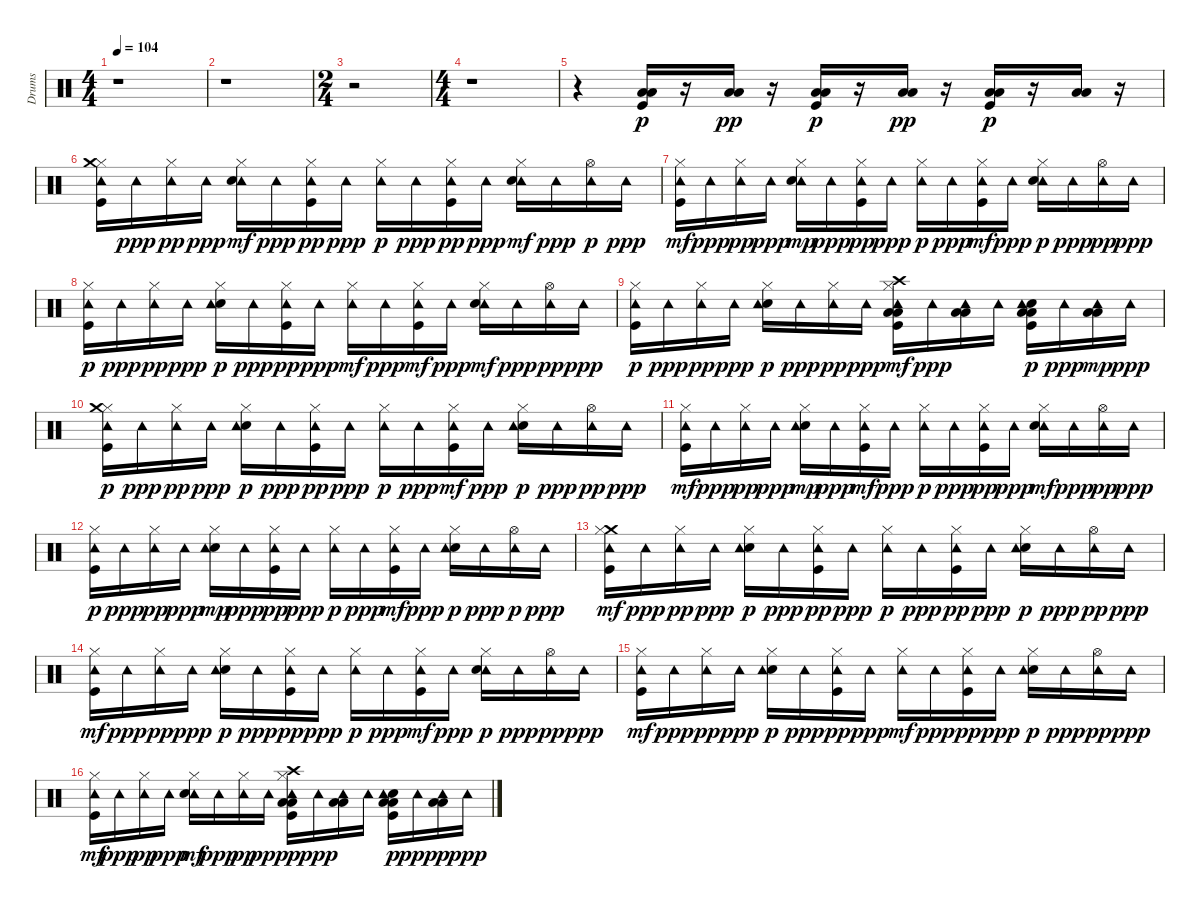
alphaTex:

\track ("Drums" "Drums") {instrument percussion}
\staff {score}
\articulation defaults
\ts (4 4)
\tempo 104
\clef neutral
\ks c
r.1{dy mf} |
r.1 |
\ts (2 4)
r.2 |
\ts (4 4)
r.1 |
r.4 ("Low Floor Tom (hit)" "Kick (hit)" "Low Tom (hit)").16{dy p} r.16 ("Low Floor Tom (hit)" "Low Tom (hit)").16{dy pp} r.16 ("Low Floor Tom (hit)" "Kick (hit)" "Low Tom (hit)").16{dy p} r.16 ("Low Tom (hit)" "Low Floor Tom (hit)").16{dy pp} r.16 ("Kick (hit)" "Low Floor Tom (hit)" "Low Tom (hit)").16{dy p} r.16 ("Low Tom (hit)" "Low Floor Tom (hit)").16 r.16 |
("Kick (hit)" "Hi-Hat (closed)" "Crash medium (hit)" "Tambourine (hit)").16 "Tambourine (hit)".16{dy ppp} ("Hi-Hat (closed)" "Tambourine (hit)").16{dy pp} "Tambourine (hit)".16{dy ppp} ("Tambourine (hit)" "Hi-Hat (closed)" "Electric Snare (hit)").16{dy mf} "Tambourine (hit)".16{dy ppp} ("Kick (hit)" "Hi-Hat (closed)" "Tambourine (hit)").16{dy pp} "Tambourine (hit)".16{dy ppp} ("Hi-Hat (closed)" "Tambourine (hit)").16{dy p} "Tambourine (hit)".16{dy ppp} ("Kick (hit)" "Hi-Hat (closed)" "Tambourine (hit)").16{dy pp} "Tambourine (hit)".16{dy ppp} ("Hi-Hat (closed)" "Tambourine (hit)" "Electric Snare (hit)").16{dy mf} "Tambourine (hit)".16{dy ppp} ("Tambourine (hit)" "Hi-Hat (open)").16{dy p} "Tambourine (hit)".16{dy ppp} |
("Tambourine (hit)" "Hi-Hat (closed)" "Kick (hit)").16{dy mf} "Tambourine (hit)".16{dy ppp} ("Hi-Hat (closed)" "Tambourine (hit)").16{dy pp} "Tambourine (hit)".16{dy ppp} ("Tambourine (hit)" "Electric Snare (hit)" "Hi-Hat (closed)").16{dy mp} "Tambourine (hit)".16{dy ppp} ("Hi-Hat (closed)" "Kick (hit)" "Tambourine (hit)").16{dy pp} "Tambourine (hit)".16{dy ppp} ("Hi-Hat (closed)" "Tambourine (hit)").16{dy p} "Tambourine (hit)".16{dy ppp} ("Tambourine (hit)" "Hi-Hat (closed)" "Kick (hit)").16{dy mf} "Tambourine (hit)".16{dy ppp} ("Tambourine (hit)" "Electric Snare (hit)" "Hi-Hat (closed)").16{dy p} "Tambourine (hit)".16{dy ppp} ("Hi-Hat (open)" "Tambourine (hit)").16{dy pp} "Tambourine (hit)".16{dy ppp} |
("Hi-Hat (closed)" "Kick (hit)" "Tambourine (hit)").16{dy p} "Tambourine (hit)".16{dy ppp} ("Hi-Hat (closed)" "Tambourine (hit)").16{dy pp} "Tambourine (hit)".16{dy ppp} ("Electric Snare (hit)" "Hi-Hat (closed)" "Tambourine (hit)").16{dy p} "Tambourine (hit)".16{dy ppp} ("Kick (hit)" "Hi-Hat (closed)" "Tambourine (hit)").16{dy pp} "Tambourine (hit)".16{dy ppp} ("Tambourine (hit)" "Hi-Hat (closed)").16{dy mf} "Tambourine (hit)".16{dy ppp} ("Tambourine (hit)" "Hi-Hat (closed)" "Kick (hit)").16{dy mf} "Tambourine (hit)".16{dy ppp} ("Hi-Hat (closed)" "Tambourine (hit)" "Electric Snare (hit)").16{dy mf} "Tambourine (hit)".16{dy ppp} ("Hi-Hat (open)" "Tambourine (hit)").16{dy pp} "Tambourine (hit)".16{dy ppp} |
("Kick (hit)" "Hi-Hat (closed)" "Tambourine (hit)").16{dy p} "Tambourine (hit)".16{dy ppp} ("Hi-Hat (closed)" "Tambourine (hit)").16{dy pp} "Tambourine (hit)".16{dy ppp} ("Electric Snare (hit)" "Hi-Hat (closed)" "Tambourine (hit)").16{dy p} "Tambourine (hit)".16{dy ppp} ("Hi-Hat (closed)" "Tambourine (hit)").16{dy pp} "Tambourine (hit)".16{dy ppp} ("Tambourine (hit)" "Crash high (hit)" "Low Tom (hit)" "Kick (hit)" "Hi-Hat (closed)" "Low Floor Tom (hit)").16{dy mf} "Tambourine (hit)".16{dy ppp} ("Tambourine (hit)" "Low Tom (hit)" "Low Floor Tom (hit)").16 "Tambourine (hit)".16 ("Kick (hit)" "Low Tom (hit)" "Low Floor Tom (hit)" "Electric Snare (hit)" "Tambourine (hit)").16{dy p} "Tambourine (hit)".16{dy ppp} ("Low Tom (hit)" "Tambourine (hit)" "Low Floor Tom (hit)").16{dy mp} "Tambourine (hit)".16{dy ppp} |
("Kick (hit)" "Hi-Hat (closed)" "Crash medium (hit)" "Tambourine (hit)").16{dy p} "Tambourine (hit)".16{dy ppp} ("Tambourine (hit)" "Hi-Hat (closed)").16{dy pp} "Tambourine (hit)".16{dy ppp} ("Hi-Hat (closed)" "Electric Snare (hit)" "Tambourine (hit)").16{dy p} "Tambourine (hit)".16{dy ppp} ("Tambourine (hit)" "Kick (hit)" "Hi-Hat (closed)").16{dy pp} "Tambourine (hit)".16{dy ppp} ("Hi-Hat (closed)" "Tambourine (hit)").16{dy p} "Tambourine (hit)".16{dy ppp} ("Tambourine (hit)" "Hi-Hat (closed)" "Kick (hit)").16{dy mf} "Tambourine (hit)".16{dy ppp} ("Hi-Hat (closed)" "Electric Snare (hit)" "Tambourine (hit)").16{dy p} "Tambourine (hit)".16{dy ppp} ("Hi-Hat (open)" "Tambourine (hit)").16{dy pp} "Tambourine (hit)".16{dy ppp} |
("Hi-Hat (closed)" "Tambourine (hit)" "Kick (hit)").16{dy mf} "Tambourine (hit)".16{dy ppp} ("Tambourine (hit)" "Hi-Hat (closed)").16{dy pp} "Tambourine (hit)".16{dy ppp} ("Electric Snare (hit)" "Tambourine (hit)" "Hi-Hat (closed)").16{dy mp} "Tambourine (hit)".16{dy ppp} ("Hi-Hat (closed)" "Tambourine (hit)" "Kick (hit)").16{dy mf} "Tambourine (hit)".16{dy ppp} ("Hi-Hat (closed)" "Tambourine (hit)").16{dy p} "Tambourine (hit)".16{dy ppp} ("Tambourine (hit)" "Kick (hit)" "Hi-Hat (closed)").16{dy pp} "Tambourine (hit)".16{dy ppp} ("Hi-Hat (closed)" "Tambourine (hit)" "Electric Snare (hit)").16{dy mf} "Tambourine (hit)".16{dy ppp} ("Hi-Hat (open)" "Tambourine (hit)").16{dy pp} "Tambourine (hit)".16{dy ppp} |
("Hi-Hat (closed)" "Kick (hit)" "Tambourine (hit)").16{dy p} "Tambourine (hit)".16{dy ppp} ("Hi-Hat (closed)" "Tambourine (hit)").16{dy pp} "Tambourine (hit)".16{dy ppp} ("Electric Snare (hit)" "Tambourine (hit)" "Hi-Hat (closed)").16{dy mp} "Tambourine (hit)".16{dy ppp} ("Kick (hit)" "Hi-Hat (closed)" "Tambourine (hit)").16{dy pp} "Tambourine (hit)".16{dy ppp} ("Hi-Hat (closed)" "Tambourine (hit)").16{dy p} "Tambourine (hit)".16{dy ppp} ("Tambourine (hit)" "Hi-Hat (closed)" "Kick (hit)").16{dy mf} "Tambourine (hit)".16{dy ppp} ("Hi-Hat (closed)" "Electric Snare (hit)" "Tambourine (hit)").16{dy p} "Tambourine (hit)".16{dy ppp} ("Tambourine (hit)" "Hi-Hat (open)").16{dy p} "Tambourine (hit)".16{dy ppp} |
("Crash medium (hit)" "Kick (hit)" "Tambourine (hit)" "Hi-Hat (closed)").16{dy mf} "Tambourine (hit)".16{dy ppp} ("Hi-Hat (closed)" "Tambourine (hit)").16{dy pp} "Tambourine (hit)".16{dy ppp} ("Electric Snare (hit)" "Hi-Hat (closed)" "Tambourine (hit)").16{dy p} "Tambourine (hit)".16{dy ppp} ("Tambourine (hit)" "Kick (hit)" "Hi-Hat (closed)").16{dy pp} "Tambourine (hit)".16{dy ppp} ("Hi-Hat (closed)" "Tambourine (hit)").16{dy p} "Tambourine (hit)".16{dy ppp} ("Kick (hit)" "Hi-Hat (closed)" "Tambourine (hit)").16{dy pp} "Tambourine (hit)".16{dy ppp} ("Electric Snare (hit)" "Hi-Hat (closed)" "Tambourine (hit)").16{dy p} "Tambourine (hit)".16{dy ppp} ("Hi-Hat (open)" "Tambourine (hit)").16{dy pp} "Tambourine (hit)".16{dy ppp} |
("Kick (hit)" "Tambourine (hit)" "Hi-Hat (closed)").16{dy mf} "Tambourine (hit)".16{dy ppp} ("Tambourine (hit)" "Hi-Hat (closed)").16{dy pp} "Tambourine (hit)".16{dy ppp} ("Electric Snare (hit)" "Hi-Hat (closed)" "Tambourine (hit)").16{dy p} "Tambourine (hit)".16{dy ppp} ("Hi-Hat (closed)" "Kick (hit)" "Tambourine (hit)").16{dy pp} "Tambourine (hit)".16{dy ppp} ("Hi-Hat (closed)" "Tambourine (hit)").16{dy p} "Tambourine (hit)".16{dy ppp} ("Hi-Hat (closed)" "Tambourine (hit)" "Kick (hit)").16{dy mf} "Tambourine (hit)".16{dy ppp} ("Tambourine (hit)" "Electric Snare (hit)" "Hi-Hat (closed)").16{dy p} "Tambourine (hit)".16{dy ppp} ("Hi-Hat (open)" "Tambourine (hit)").16{dy pp} "Tambourine (hit)".16{dy ppp} |
("Hi-Hat (closed)" "Tambourine (hit)" "Kick (hit)").16{dy mf} "Tambourine (hit)".16{dy ppp} ("Tambourine (hit)" "Hi-Hat (closed)").16{dy pp} "Tambourine (hit)".16{dy ppp} ("Electric Snare (hit)" "Hi-Hat (closed)" "Tambourine (hit)").16{dy p} "Tambourine (hit)".16{dy ppp} ("Kick (hit)" "Hi-Hat (closed)" "Tambourine (hit)").16{dy pp} "Tambourine (hit)".16{dy ppp} ("Tambourine (hit)" "Hi-Hat (closed)").16{dy mf} "Tambourine (hit)".16{dy ppp} ("Kick (hit)" "Hi-Hat (closed)" "Tambourine (hit)").16{dy pp} "Tambourine (hit)".16{dy ppp} ("Hi-Hat (closed)" "Electric Snare (hit)" "Tambourine (hit)").16{dy p} "Tambourine (hit)".16{dy ppp} ("Hi-Hat (open)" "Tambourine (hit)").16{dy pp} "Tambourine (hit)".16{dy ppp} |
("Tambourine (hit)" "Hi-Hat (closed)" "Kick (hit)").16{dy mf} "Tambourine (hit)".16{dy ppp} ("Hi-Hat (closed)" "Tambourine (hit)").16{dy pp} "Tambourine (hit)".16{dy ppp} ("Tambourine (hit)" "Hi-Hat (closed)" "Electric Snare (hit)").16{dy mf} "Tambourine (hit)".16{dy ppp} ("Hi-Hat (closed)" "Tambourine (hit)").16{dy pp} "Tambourine (hit)".16{dy ppp} ("Hi-Hat (closed)" "Low Floor Tom (hit)" "Low Tom (hit)" "Kick (hit)" "Crash high (hit)" "Tambourine (hit)").16{dy p} "Tambourine (hit)".16{dy ppp} ("Tambourine (hit)" "Low Tom (hit)" "Low Floor Tom (hit)").16 "Tambourine (hit)".16 ("Electric Snare (hit)" "Tambourine (hit)" "Low Tom (hit)" "Kick (hit)" "Low Floor Tom (hit)").16{dy p} "Tambourine (hit)".16{dy ppp} ("Low Floor Tom (hit)" "Tambourine (hit)" "Low Tom (hit)").16{dy p} "Tambourine (hit)".16{dy ppp}
